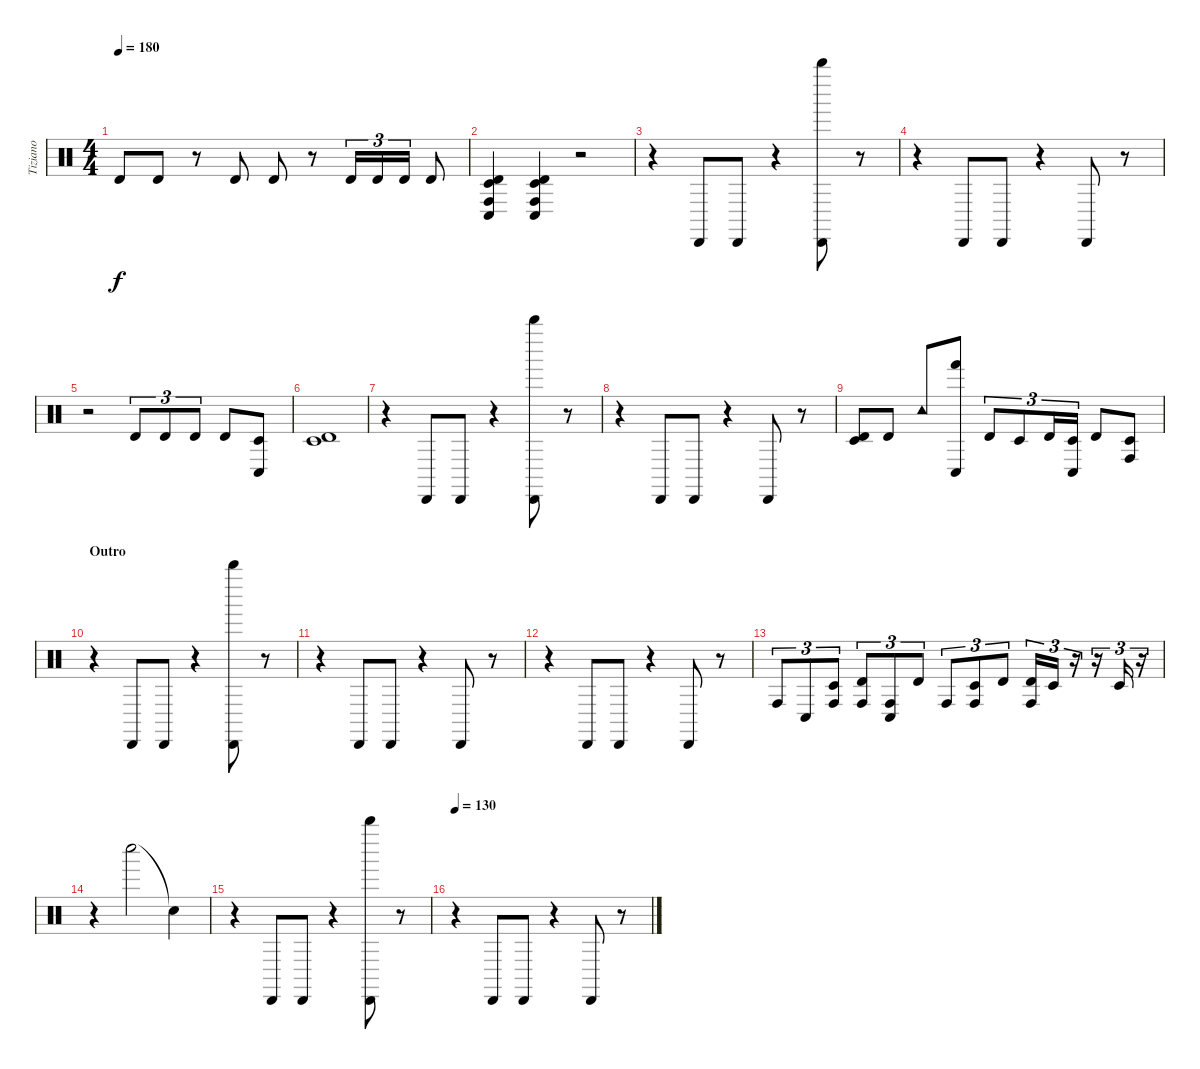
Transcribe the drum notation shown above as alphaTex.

\track ("Tiziano" "Tiziano") {instrument percussion}
\staff {score}
\articulation defaults
\ts (4 4)
\tempo 180
\clef neutral
\ks c "Timbale high (hit)".8{dy f} "Timbale high (hit)".8
r.8 "Timbale high (hit)".8 "Timbale high (hit)".8 r.8 "Timbale high (hit)".16{tu (3 2)} "Timbale high (hit)".16{tu (3 2)} "Timbale high (hit)".16{tu (3 2)} "Timbale high (hit)".8 |
("Timbale low (hit)" "Timbale high (hit)" "Conga low (hit)" "Conga high (hit)").4{volume 6} ("Timbale low (hit)" "Timbale high (hit)" "Conga low (hit)" "Conga high (hit)").4 r.2 |
r.4 "Cabasa (hit)".8 "Cabasa (hit)".8 r.4 ("Cabasa (hit)" "Whistle high (hit)").8 r.8 |
r.4 "Cabasa (hit)".8 "Cabasa (hit)".8 r.4 "Cabasa (hit)".8 r.8 |
r.2 "Timbale high (hit)".8{tu (3 2)} "Timbale high (hit)".8{tu (3 2)} "Timbale high (hit)".8{tu (3 2)} "Timbale high (hit)".8 ("Conga low (hit)" "Timbale low (hit)").8 |
("Timbale high (hit)" "Timbale low (hit)").1{volume 4} |
r.4 "Cabasa (hit)".8 "Cabasa (hit)".8 r.4 ("Cabasa (hit)" "Whistle high (hit)").8 r.8 |
r.4 "Cabasa (hit)".8 "Cabasa (hit)".8 r.4 "Cabasa (hit)".8 r.8 |
("Timbale low (hit)" "Timbale high (hit)").8 "Timbale high (hit)".8 "Tambourine (hit)".8 ("Conga low (hit)" "Hand (hit)").8 "Timbale high (hit)".8{tu (3 2)} "Timbale low (hit)".8{tu (3 2)} "Timbale high (hit)".16{tu (3 2)} ("Conga low (hit)" "Timbale low (hit)").16{tu (3 2)} "Timbale high (hit)".8 ("Timbale low (hit)" "Conga high (hit)").8 |
\section ("" "Outro")
r.4{volume 2} "Cabasa (hit)".8 "Cabasa (hit)".8 r.4 ("Cabasa (hit)" "Whistle high (hit)").8 r.8 |
r.4 "Cabasa (hit)".8 "Cabasa (hit)".8 r.4 "Cabasa (hit)".8 r.8 |
r.4 "Cabasa (hit)".8 "Cabasa (hit)".8 r.4 "Cabasa (hit)".8 r.8 |
"Conga high (hit)".8{tu (3 2)} "Conga low (hit)".8{tu (3 2)} ("Conga high (hit)" "Timbale low (hit)").8{tu (3 2)} ("Conga high (hit)" "Timbale high (hit)").8{tu (3 2)} ("Conga high (hit)" "Conga low (hit)").8{tu (3 2)} "Timbale high (hit)".8{tu (3 2)} "Conga high (hit)".8{tu (3 2)} ("Timbale low (hit)" "Conga high (hit)").8{tu (3 2)} "Timbale high (hit)".8{tu (3 2)} ("Conga high (hit)" "Timbale high (hit)").16{tu (3 2)} "Timbale low (hit)".16{tu (3 2)} r.16{tu (3 2)} r.16{tu (3 2)} "Timbale low (hit)".16{tu (3 2)} r.16{tu (3 2)} |
r.4{volume 0} "Whistle low (hit)".2 "Snare (hit)"{t}.4 |
r.4 "Cabasa (hit)".8 "Cabasa (hit)".8 r.4 ("Cabasa (hit)" "Whistle high (hit)").8 r.8 |
\tempo 130
r.4 "Cabasa (hit)".8 "Cabasa (hit)".8 r.4 "Cabasa (hit)".8 r.8
